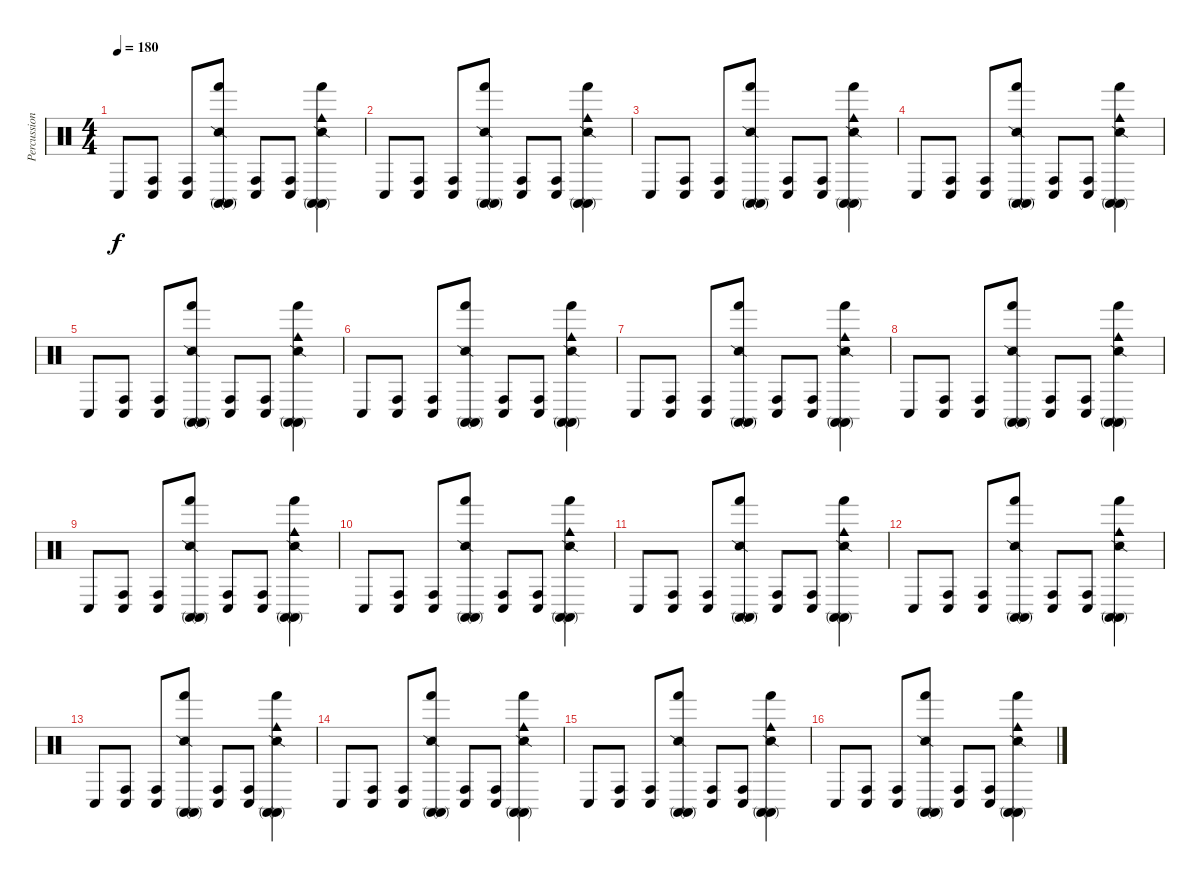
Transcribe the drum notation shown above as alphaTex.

\track ("Percussion" "Percussion") {instrument percussion}
\staff {score}
\articulation defaults
\ts (4 4)
\tempo 180
\clef neutral
\ks c "Conga low (hit)".8{dy f}
("Conga high (hit)" "Conga low (hit)").8 ("Conga high (hit)" "Conga low (hit)").8 ("Snare (side stick) 2" "Hand (hit)" "Conga high (mute)" "Conga high (mute)").8 ("Conga high (hit)" "Conga low (hit)").8 ("Conga high (hit)" "Conga low (hit)").8 ("Snare (side stick) 2" "Hand (hit)" "Cowbell medium (hit)" "Conga high (mute)" "Conga high (mute)").4 |
"Conga low (hit)".8 ("Conga high (hit)" "Conga low (hit)").8 ("Conga high (hit)" "Conga low (hit)").8 ("Snare (side stick) 2" "Hand (hit)" "Conga high (mute)" "Conga high (mute)").8 ("Conga high (hit)" "Conga low (hit)").8 ("Conga high (hit)" "Conga low (hit)").8 ("Snare (side stick) 2" "Hand (hit)" "Cowbell medium (hit)" "Conga high (mute)" "Conga high (mute)").4 |
"Conga low (hit)".8 ("Conga high (hit)" "Conga low (hit)").8 ("Conga high (hit)" "Conga low (hit)").8 ("Snare (side stick) 2" "Hand (hit)" "Conga high (mute)" "Conga high (mute)").8 ("Conga high (hit)" "Conga low (hit)").8 ("Conga high (hit)" "Conga low (hit)").8 ("Snare (side stick) 2" "Hand (hit)" "Cowbell medium (hit)" "Conga high (mute)" "Conga high (mute)").4 |
"Conga low (hit)".8 ("Conga high (hit)" "Conga low (hit)").8 ("Conga high (hit)" "Conga low (hit)").8 ("Snare (side stick) 2" "Hand (hit)" "Conga high (mute)" "Conga high (mute)").8 ("Conga high (hit)" "Conga low (hit)").8 ("Conga high (hit)" "Conga low (hit)").8 ("Snare (side stick) 2" "Hand (hit)" "Cowbell medium (hit)" "Conga high (mute)" "Conga high (mute)").4 |
"Conga low (hit)".8 ("Conga high (hit)" "Conga low (hit)").8 ("Conga high (hit)" "Conga low (hit)").8 ("Snare (side stick) 2" "Hand (hit)" "Conga high (mute)" "Conga high (mute)").8 ("Conga high (hit)" "Conga low (hit)").8 ("Conga high (hit)" "Conga low (hit)").8 ("Snare (side stick) 2" "Hand (hit)" "Cowbell medium (hit)" "Conga high (mute)" "Conga high (mute)").4 |
"Conga low (hit)".8 ("Conga high (hit)" "Conga low (hit)").8 ("Conga high (hit)" "Conga low (hit)").8 ("Snare (side stick) 2" "Hand (hit)" "Conga high (mute)" "Conga high (mute)").8 ("Conga high (hit)" "Conga low (hit)").8 ("Conga high (hit)" "Conga low (hit)").8 ("Snare (side stick) 2" "Hand (hit)" "Cowbell medium (hit)" "Conga high (mute)" "Conga high (mute)").4 |
"Conga low (hit)".8 ("Conga high (hit)" "Conga low (hit)").8 ("Conga high (hit)" "Conga low (hit)").8 ("Snare (side stick) 2" "Hand (hit)" "Conga high (mute)" "Conga high (mute)").8 ("Conga high (hit)" "Conga low (hit)").8 ("Conga high (hit)" "Conga low (hit)").8 ("Snare (side stick) 2" "Hand (hit)" "Cowbell medium (hit)" "Conga high (mute)" "Conga high (mute)").4 |
"Conga low (hit)".8 ("Conga high (hit)" "Conga low (hit)").8 ("Conga high (hit)" "Conga low (hit)").8 ("Snare (side stick) 2" "Hand (hit)" "Conga high (mute)" "Conga high (mute)").8 ("Conga high (hit)" "Conga low (hit)").8 ("Conga high (hit)" "Conga low (hit)").8 ("Snare (side stick) 2" "Hand (hit)" "Cowbell medium (hit)" "Conga high (mute)" "Conga high (mute)").4 |
"Conga low (hit)".8 ("Conga high (hit)" "Conga low (hit)").8 ("Conga high (hit)" "Conga low (hit)").8 ("Snare (side stick) 2" "Hand (hit)" "Conga high (mute)" "Conga high (mute)").8 ("Conga high (hit)" "Conga low (hit)").8 ("Conga high (hit)" "Conga low (hit)").8 ("Snare (side stick) 2" "Hand (hit)" "Cowbell medium (hit)" "Conga high (mute)" "Conga high (mute)").4 |
"Conga low (hit)".8 ("Conga high (hit)" "Conga low (hit)").8 ("Conga high (hit)" "Conga low (hit)").8 ("Snare (side stick) 2" "Hand (hit)" "Conga high (mute)" "Conga high (mute)").8 ("Conga high (hit)" "Conga low (hit)").8 ("Conga high (hit)" "Conga low (hit)").8 ("Snare (side stick) 2" "Hand (hit)" "Cowbell medium (hit)" "Conga high (mute)" "Conga high (mute)").4 |
"Conga low (hit)".8 ("Conga high (hit)" "Conga low (hit)").8 ("Conga high (hit)" "Conga low (hit)").8 ("Snare (side stick) 2" "Hand (hit)" "Conga high (mute)" "Conga high (mute)").8 ("Conga high (hit)" "Conga low (hit)").8 ("Conga high (hit)" "Conga low (hit)").8 ("Snare (side stick) 2" "Hand (hit)" "Cowbell medium (hit)" "Conga high (mute)" "Conga high (mute)").4 |
"Conga low (hit)".8 ("Conga high (hit)" "Conga low (hit)").8 ("Conga high (hit)" "Conga low (hit)").8 ("Snare (side stick) 2" "Hand (hit)" "Conga high (mute)" "Conga high (mute)").8 ("Conga high (hit)" "Conga low (hit)").8 ("Conga high (hit)" "Conga low (hit)").8 ("Snare (side stick) 2" "Hand (hit)" "Cowbell medium (hit)" "Conga high (mute)" "Conga high (mute)").4 |
"Conga low (hit)".8 ("Conga high (hit)" "Conga low (hit)").8 ("Conga high (hit)" "Conga low (hit)").8 ("Snare (side stick) 2" "Hand (hit)" "Conga high (mute)" "Conga high (mute)").8 ("Conga high (hit)" "Conga low (hit)").8 ("Conga high (hit)" "Conga low (hit)").8 ("Snare (side stick) 2" "Hand (hit)" "Cowbell medium (hit)" "Conga high (mute)" "Conga high (mute)").4 |
"Conga low (hit)".8 ("Conga high (hit)" "Conga low (hit)").8 ("Conga high (hit)" "Conga low (hit)").8 ("Snare (side stick) 2" "Hand (hit)" "Conga high (mute)" "Conga high (mute)").8 ("Conga high (hit)" "Conga low (hit)").8 ("Conga high (hit)" "Conga low (hit)").8 ("Snare (side stick) 2" "Hand (hit)" "Cowbell medium (hit)" "Conga high (mute)" "Conga high (mute)").4 |
"Conga low (hit)".8 ("Conga high (hit)" "Conga low (hit)").8 ("Conga high (hit)" "Conga low (hit)").8 ("Snare (side stick) 2" "Hand (hit)" "Conga high (mute)" "Conga high (mute)").8 ("Conga high (hit)" "Conga low (hit)").8 ("Conga high (hit)" "Conga low (hit)").8 ("Snare (side stick) 2" "Hand (hit)" "Cowbell medium (hit)" "Conga high (mute)" "Conga high (mute)").4 |
"Conga low (hit)".8 ("Conga high (hit)" "Conga low (hit)").8 ("Conga high (hit)" "Conga low (hit)").8 ("Snare (side stick) 2" "Hand (hit)" "Conga high (mute)" "Conga high (mute)").8 ("Conga high (hit)" "Conga low (hit)").8 ("Conga high (hit)" "Conga low (hit)").8 ("Snare (side stick) 2" "Hand (hit)" "Cowbell medium (hit)" "Conga high (mute)" "Conga high (mute)").4
